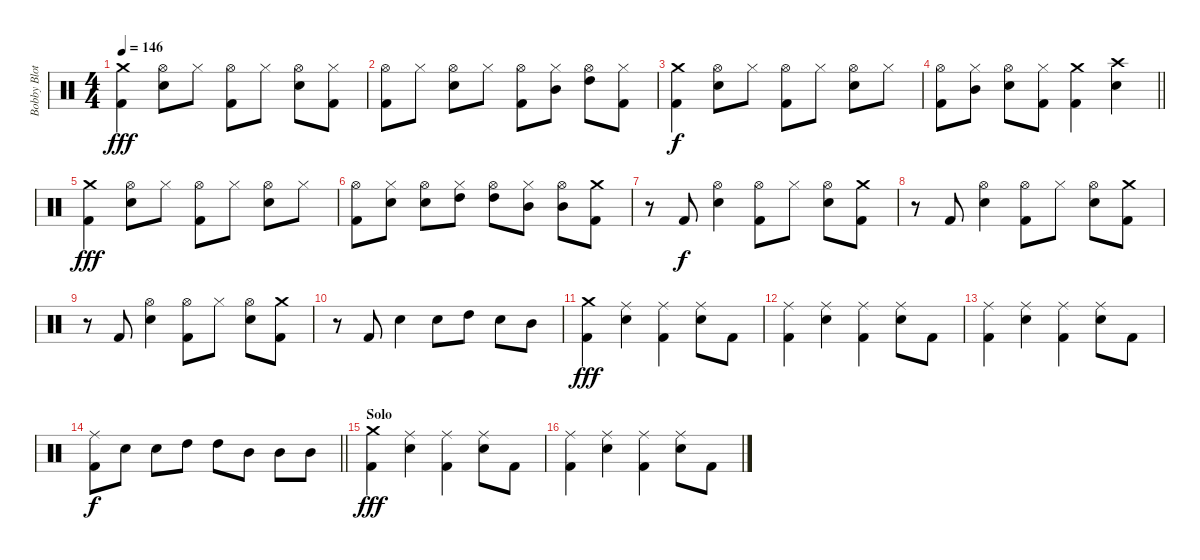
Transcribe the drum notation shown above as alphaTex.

\track ("Bobby Blotzer - Drums" "Bobby Blot") {instrument percussion}
\staff {score}
\articulation defaults
\ts (4 4)
\tempo 146
\clef neutral
\ks c
("Crash medium (hit)" "Kick (hit) 2").4{dy fff} ("Hi-Hat (open)" "Snare (hit) 2").8 "Hi-Hat (closed)".8 ("Hi-Hat (open)" "Kick (hit) 2").8 "Hi-Hat (closed)".8 ("Hi-Hat (open)" "Snare (hit) 2").8 ("Hi-Hat (closed)" "Kick (hit) 2").8 |
("Hi-Hat (open)" "Kick (hit) 2").8 "Hi-Hat (closed)".8 ("Hi-Hat (open)" "Snare (hit) 2").8 "Hi-Hat (closed)".8 ("Hi-Hat (open)" "Kick (hit) 2").8 ("Hi-Hat (closed)" "Mid Tom (hit)").8 ("Hi-Hat (open)" "High Tom (hit)").8 ("Hi-Hat (closed)" "Kick (hit) 2").8 |
("Crash medium (hit)" "Kick (hit) 2").4{dy f} ("Hi-Hat (open)" "Snare (hit) 2").8 "Hi-Hat (closed)".8 ("Hi-Hat (open)" "Kick (hit) 2").8 "Hi-Hat (closed)".8 ("Hi-Hat (open)" "Snare (hit) 2").8 "Hi-Hat (closed)".8 |
\barLineRight lightlight
("Hi-Hat (open)" "Kick (hit) 2").8 ("Hi-Hat (closed)" "Mid Tom (hit)").8 ("Hi-Hat (open)" "Snare (hit) 2").8 ("Hi-Hat (closed)" "Kick (hit) 2").8 ("Crash medium (hit)" "Kick (hit) 2").4 ("Crash high (hit)" "Snare (hit) 2").4 |
("Crash medium (hit)" "Kick (hit) 2").4{dy fff} ("Hi-Hat (open)" "Snare (hit) 2").8 "Hi-Hat (closed)".8 ("Hi-Hat (open)" "Kick (hit) 2").8 "Hi-Hat (closed)".8 ("Hi-Hat (open)" "Snare (hit) 2").8 "Hi-Hat (closed)".8 |
("Hi-Hat (open)" "Kick (hit) 2").8 ("Hi-Hat (closed)" "Snare (hit) 2").8 ("Hi-Hat (open)" "Snare (hit) 2").8 ("Hi-Hat (closed)" "High Tom (hit)").8 ("Hi-Hat (open)" "High Tom (hit)").8 ("Hi-Hat (closed)" "Mid Tom (hit)").8 ("Hi-Hat (open)" "Mid Tom (hit)").8 ("Crash medium (hit)" "Kick (hit) 2").8 |
r.8 "Kick (hit) 2".8{dy f} ("Hi-Hat (open)" "Snare (hit) 2").4 ("Hi-Hat (open)" "Kick (hit) 2").8 "Hi-Hat (closed)".8 ("Hi-Hat (open)" "Snare (hit) 2").8 ("Crash medium (hit)" "Kick (hit) 2").8 |
r.8 "Kick (hit) 2".8 ("Hi-Hat (open)" "Snare (hit) 2").4 ("Hi-Hat (open)" "Kick (hit) 2").8 "Hi-Hat (closed)".8 ("Hi-Hat (open)" "Snare (hit) 2").8 ("Crash medium (hit)" "Kick (hit) 2").8 |
r.8 "Kick (hit) 2".8 ("Hi-Hat (open)" "Snare (hit) 2").4 ("Hi-Hat (open)" "Kick (hit) 2").8 "Hi-Hat (closed)".8 ("Hi-Hat (open)" "Snare (hit) 2").8 ("Crash medium (hit)" "Kick (hit) 2").8 |
r.8 "Kick (hit) 2".8 "Snare (hit) 2".4 "Snare (hit) 2".8 "High Tom (hit)".8 "Snare (hit) 2".8 "Mid Tom (hit)".8 |
("Crash medium (hit)" "Kick (hit) 2").4{dy fff} ("Ride (middle)" "Snare (hit) 2").4 ("Ride (middle)" "Kick (hit) 2").4 ("Ride (middle)" "Snare (hit) 2").8 "Kick (hit) 2".8 |
("Ride (middle)" "Kick (hit) 2").4 ("Ride (middle)" "Snare (hit) 2").4 ("Ride (middle)" "Kick (hit) 2").4 ("Ride (middle)" "Snare (hit) 2").8 "Kick (hit) 2".8 |
("Ride (middle)" "Kick (hit) 2").4 ("Ride (middle)" "Snare (hit) 2").4 ("Ride (middle)" "Kick (hit) 2").4 ("Ride (middle)" "Snare (hit) 2").8 "Kick (hit) 2".8 |
\barLineRight lightlight
("Ride (middle)" "Kick (hit) 2").8{dy f} "Snare (hit) 2".8 "Snare (hit) 2".8 "High Tom (hit)".8 "High Tom (hit)".8 "Mid Tom (hit)".8 "Mid Tom (hit)".8 "Mid Tom (hit)".8 |
\section ("" "Solo")
("Crash medium (hit)" "Kick (hit) 2").4{dy fff} ("Ride (middle)" "Snare (hit) 2").4 ("Ride (middle)" "Kick (hit) 2").4 ("Ride (middle)" "Snare (hit) 2").8 "Kick (hit) 2".8 |
("Ride (middle)" "Kick (hit) 2").4 ("Ride (middle)" "Snare (hit) 2").4 ("Ride (middle)" "Kick (hit) 2").4 ("Ride (middle)" "Snare (hit) 2").8 "Kick (hit) 2".8
